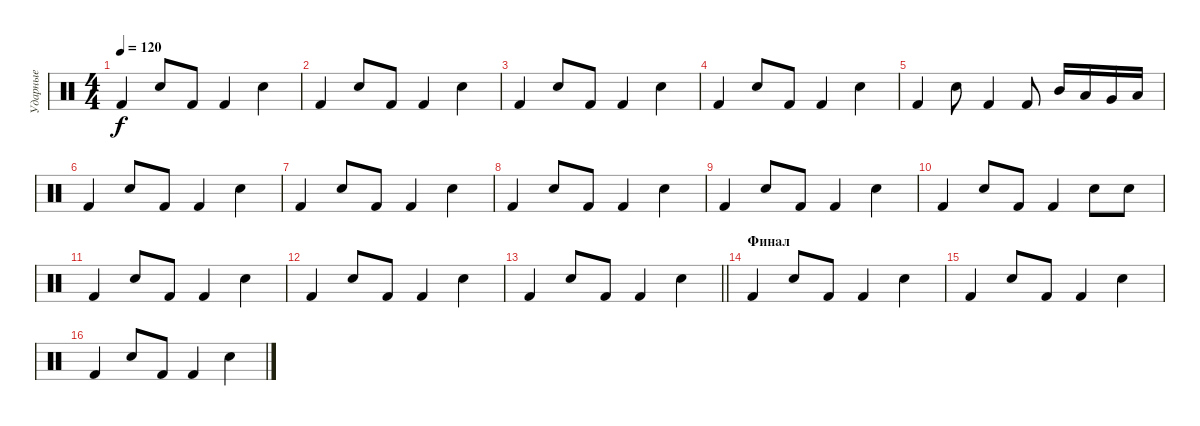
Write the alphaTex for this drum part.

\track ("Ударные" "Ударные") {instrument percussion}
\staff {score}
\articulation defaults
\ts (4 4)
\tempo 120
\clef neutral
\ks c "Kick (hit) 2".4{dy f} "Electric Snare (hit)".8 "Kick (hit) 2".8 "Kick (hit) 2".4 "Electric Snare (hit)".4
|
"Kick (hit) 2".4 "Electric Snare (hit)".8 "Kick (hit) 2".8 "Kick (hit) 2".4 "Electric Snare (hit)".4 |
"Kick (hit) 2".4 "Electric Snare (hit)".8 "Kick (hit) 2".8 "Kick (hit) 2".4 "Electric Snare (hit)".4 |
"Kick (hit) 2".4 "Electric Snare (hit)".8 "Kick (hit) 2".8 "Kick (hit) 2".4 "Electric Snare (hit)".4 |
"Kick (hit) 2".4 "Electric Snare (hit)".8 "Kick (hit) 2".4 "Kick (hit) 2".8 "Mid Tom (hit)".16 "Low Tom (hit)".16 "Very Low Tom (hit)".16 "Low Floor Tom (hit)".16 |
"Kick (hit) 2".4 "Electric Snare (hit)".8 "Kick (hit) 2".8 "Kick (hit) 2".4 "Electric Snare (hit)".4 |
"Kick (hit) 2".4 "Electric Snare (hit)".8 "Kick (hit) 2".8 "Kick (hit) 2".4 "Electric Snare (hit)".4 |
"Kick (hit) 2".4 "Electric Snare (hit)".8 "Kick (hit) 2".8 "Kick (hit) 2".4 "Electric Snare (hit)".4 |
"Kick (hit) 2".4 "Electric Snare (hit)".8 "Kick (hit) 2".8 "Kick (hit) 2".4 "Electric Snare (hit)".4 |
"Kick (hit) 2".4 "Electric Snare (hit)".8 "Kick (hit) 2".8 "Kick (hit) 2".4 "Electric Snare (hit)".8 "Electric Snare (hit)".8 |
"Kick (hit) 2".4 "Electric Snare (hit)".8 "Kick (hit) 2".8 "Kick (hit) 2".4 "Electric Snare (hit)".4 |
"Kick (hit) 2".4 "Electric Snare (hit)".8 "Kick (hit) 2".8 "Kick (hit) 2".4 "Electric Snare (hit)".4 |
\barLineRight lightlight "Kick (hit) 2".4 "Electric Snare (hit)".8 "Kick (hit) 2".8 "Kick (hit) 2".4 "Electric Snare (hit)".4
|
\section ("" "Финал")
"Kick (hit) 2".4 "Electric Snare (hit)".8 "Kick (hit) 2".8 "Kick (hit) 2".4 "Electric Snare (hit)".4 |
"Kick (hit) 2".4 "Electric Snare (hit)".8 "Kick (hit) 2".8 "Kick (hit) 2".4 "Electric Snare (hit)".4 |
"Kick (hit) 2".4 "Electric Snare (hit)".8 "Kick (hit) 2".8 "Kick (hit) 2".4 "Electric Snare (hit)".4
